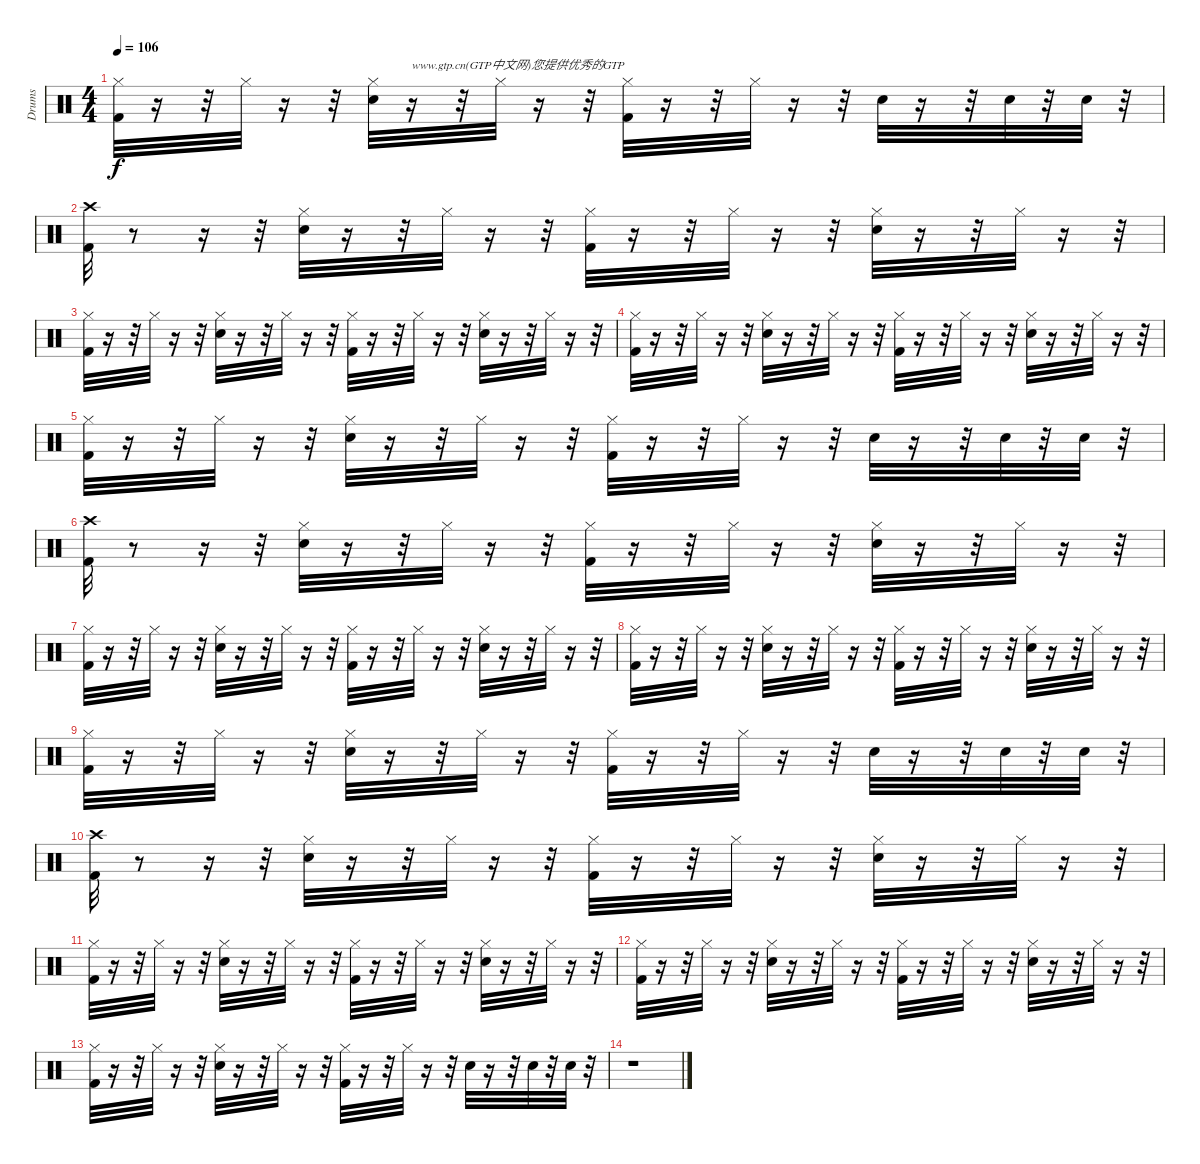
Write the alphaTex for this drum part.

\track ("Drums" "Drums") {instrument percussion}
\staff {score}
\articulation defaults
\ts (4 4)
\tempo 106
\clef neutral
\ks c
("Hi-Hat (closed)" "Kick (hit) 2").32{dy f} r.16 r.32 "Hi-Hat (closed)".32 r.16 r.32 ("Hi-Hat (closed)" "Snare (hit) 2").32 r.16{txt "www.gtp.cn(GTP中文网)您提供优秀的GTP"} r.32 "Hi-Hat (closed)".32 r.16 r.32 ("Hi-Hat (closed)" "Kick (hit) 2").32 r.16 r.32 "Hi-Hat (closed)".32 r.16 r.32 "Snare (hit) 2".32 r.16 r.32 "Snare (hit) 2".32 r.32 "Snare (hit) 2".32 r.32 |
("Crash high (hit)" "Kick (hit) 2").32 r.8 r.16 r.32 ("Hi-Hat (closed)" "Snare (hit) 2").32 r.16 r.32 "Hi-Hat (closed)".32 r.16 r.32 ("Hi-Hat (closed)" "Kick (hit) 2").32 r.16 r.32 "Hi-Hat (closed)".32 r.16 r.32 ("Hi-Hat (closed)" "Snare (hit) 2").32 r.16 r.32 "Hi-Hat (closed)".32 r.16 r.32 |
("Hi-Hat (closed)" "Kick (hit) 2").32 r.16 r.32 "Hi-Hat (closed)".32 r.16 r.32 ("Hi-Hat (closed)" "Snare (hit) 2").32 r.16 r.32 "Hi-Hat (closed)".32 r.16 r.32 ("Hi-Hat (closed)" "Kick (hit) 2").32 r.16 r.32 "Hi-Hat (closed)".32 r.16 r.32 ("Hi-Hat (closed)" "Snare (hit) 2").32 r.16 r.32 "Hi-Hat (closed)".32 r.16 r.32 |
("Hi-Hat (closed)" "Kick (hit) 2").32 r.16 r.32 "Hi-Hat (closed)".32 r.16 r.32 ("Hi-Hat (closed)" "Snare (hit) 2").32 r.16 r.32 "Hi-Hat (closed)".32 r.16 r.32 ("Hi-Hat (closed)" "Kick (hit) 2").32 r.16 r.32 "Hi-Hat (closed)".32 r.16 r.32 ("Hi-Hat (closed)" "Snare (hit) 2").32 r.16 r.32 "Hi-Hat (closed)".32 r.16 r.32 |
("Hi-Hat (closed)" "Kick (hit) 2").32 r.16 r.32 "Hi-Hat (closed)".32 r.16 r.32 ("Hi-Hat (closed)" "Snare (hit) 2").32 r.16 r.32 "Hi-Hat (closed)".32 r.16 r.32 ("Hi-Hat (closed)" "Kick (hit) 2").32 r.16 r.32 "Hi-Hat (closed)".32 r.16 r.32 "Snare (hit) 2".32 r.16 r.32 "Snare (hit) 2".32 r.32 "Snare (hit) 2".32 r.32 |
("Crash high (hit)" "Kick (hit) 2").32 r.8 r.16 r.32 ("Hi-Hat (closed)" "Snare (hit) 2").32 r.16 r.32 "Hi-Hat (closed)".32 r.16 r.32 ("Hi-Hat (closed)" "Kick (hit) 2").32 r.16 r.32 "Hi-Hat (closed)".32 r.16 r.32 ("Hi-Hat (closed)" "Snare (hit) 2").32 r.16 r.32 "Hi-Hat (closed)".32 r.16 r.32 |
("Hi-Hat (closed)" "Kick (hit) 2").32 r.16 r.32 "Hi-Hat (closed)".32 r.16 r.32 ("Hi-Hat (closed)" "Snare (hit) 2").32 r.16 r.32 "Hi-Hat (closed)".32 r.16 r.32 ("Hi-Hat (closed)" "Kick (hit) 2").32 r.16 r.32 "Hi-Hat (closed)".32 r.16 r.32 ("Hi-Hat (closed)" "Snare (hit) 2").32 r.16 r.32 "Hi-Hat (closed)".32 r.16 r.32 |
("Hi-Hat (closed)" "Kick (hit) 2").32 r.16 r.32 "Hi-Hat (closed)".32 r.16 r.32 ("Hi-Hat (closed)" "Snare (hit) 2").32 r.16 r.32 "Hi-Hat (closed)".32 r.16 r.32 ("Hi-Hat (closed)" "Kick (hit) 2").32 r.16 r.32 "Hi-Hat (closed)".32 r.16 r.32 ("Hi-Hat (closed)" "Snare (hit) 2").32 r.16 r.32 "Hi-Hat (closed)".32 r.16 r.32 |
("Hi-Hat (closed)" "Kick (hit) 2").32 r.16 r.32 "Hi-Hat (closed)".32 r.16 r.32 ("Hi-Hat (closed)" "Snare (hit) 2").32 r.16 r.32 "Hi-Hat (closed)".32 r.16 r.32 ("Hi-Hat (closed)" "Kick (hit) 2").32 r.16 r.32 "Hi-Hat (closed)".32 r.16 r.32 "Snare (hit) 2".32 r.16 r.32 "Snare (hit) 2".32 r.32 "Snare (hit) 2".32 r.32 |
("Crash high (hit)" "Kick (hit) 2").32 r.8 r.16 r.32 ("Hi-Hat (closed)" "Snare (hit) 2").32 r.16 r.32 "Hi-Hat (closed)".32 r.16 r.32 ("Hi-Hat (closed)" "Kick (hit) 2").32 r.16 r.32 "Hi-Hat (closed)".32 r.16 r.32 ("Hi-Hat (closed)" "Snare (hit) 2").32 r.16 r.32 "Hi-Hat (closed)".32 r.16 r.32 |
("Hi-Hat (closed)" "Kick (hit) 2").32 r.16 r.32 "Hi-Hat (closed)".32 r.16 r.32 ("Hi-Hat (closed)" "Snare (hit) 2").32 r.16 r.32 "Hi-Hat (closed)".32 r.16 r.32 ("Hi-Hat (closed)" "Kick (hit) 2").32 r.16 r.32 "Hi-Hat (closed)".32 r.16 r.32 ("Hi-Hat (closed)" "Snare (hit) 2").32 r.16 r.32 "Hi-Hat (closed)".32 r.16 r.32 |
("Hi-Hat (closed)" "Kick (hit) 2").32 r.16 r.32 "Hi-Hat (closed)".32 r.16 r.32 ("Hi-Hat (closed)" "Snare (hit) 2").32 r.16 r.32 "Hi-Hat (closed)".32 r.16 r.32 ("Hi-Hat (closed)" "Kick (hit) 2").32 r.16 r.32 "Hi-Hat (closed)".32 r.16 r.32 ("Hi-Hat (closed)" "Snare (hit) 2").32 r.16 r.32 "Hi-Hat (closed)".32 r.16 r.32 |
("Hi-Hat (closed)" "Kick (hit) 2").32 r.16 r.32 "Hi-Hat (closed)".32 r.16 r.32 ("Hi-Hat (closed)" "Snare (hit) 2").32 r.16 r.32 "Hi-Hat (closed)".32 r.16 r.32 ("Hi-Hat (closed)" "Kick (hit) 2").32 r.16 r.32 "Hi-Hat (closed)".32 r.16 r.32 "Snare (hit) 2".32 r.16 r.32 "Snare (hit) 2".32 r.32 "Snare (hit) 2".32 r.32 |
r.1
